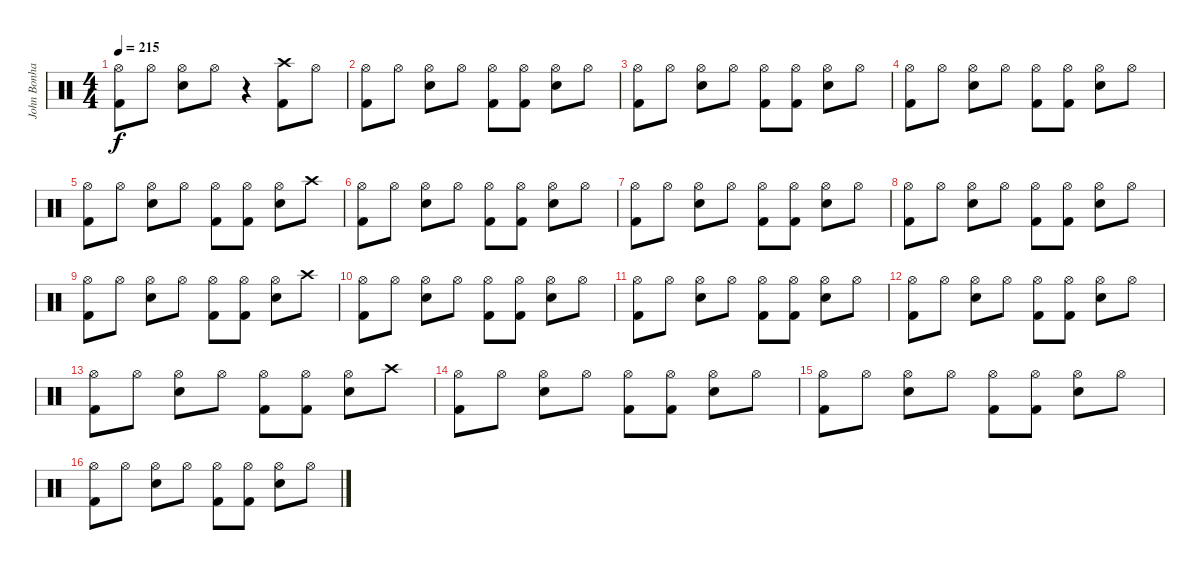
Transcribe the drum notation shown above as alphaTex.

\track ("John Bonham" "John Bonha") {instrument percussion}
\staff {score}
\articulation defaults
\ts (4 4)
\tempo 215
\clef neutral
\ks c
("Hi-Hat (open)" "Kick (hit) 2").8{dy f} "Hi-Hat (open)".8 ("Hi-Hat (open)" "Snare (hit) 2").8 "Hi-Hat (open)".8 r.4 ("Crash high (hit)" "Kick (hit) 2").8 "Hi-Hat (open)".8 |
("Hi-Hat (open)" "Kick (hit) 2").8 "Hi-Hat (open)".8 ("Hi-Hat (open)" "Snare (hit) 2").8 "Hi-Hat (open)".8 ("Hi-Hat (open)" "Kick (hit) 2").8 ("Hi-Hat (open)" "Kick (hit) 2").8 ("Hi-Hat (open)" "Snare (hit) 2").8 "Hi-Hat (open)".8 |
("Hi-Hat (open)" "Kick (hit) 2").8 "Hi-Hat (open)".8 ("Hi-Hat (open)" "Snare (hit) 2").8 "Hi-Hat (open)".8 ("Hi-Hat (open)" "Kick (hit) 2").8 ("Hi-Hat (open)" "Kick (hit) 2").8 ("Hi-Hat (open)" "Snare (hit) 2").8 "Hi-Hat (open)".8 |
("Hi-Hat (open)" "Kick (hit) 2").8 "Hi-Hat (open)".8 ("Hi-Hat (open)" "Snare (hit) 2").8 "Hi-Hat (open)".8 ("Hi-Hat (open)" "Kick (hit) 2").8 ("Hi-Hat (open)" "Kick (hit) 2").8 ("Hi-Hat (open)" "Snare (hit) 2").8 "Hi-Hat (open)".8 |
("Hi-Hat (open)" "Kick (hit) 2").8 "Hi-Hat (open)".8 ("Hi-Hat (open)" "Snare (hit) 2").8 "Hi-Hat (open)".8 ("Hi-Hat (open)" "Kick (hit) 2").8 ("Hi-Hat (open)" "Kick (hit) 2").8 ("Hi-Hat (open)" "Snare (hit) 2").8 "Crash high (hit)".8 |
("Hi-Hat (open)" "Kick (hit) 2").8 "Hi-Hat (open)".8 ("Hi-Hat (open)" "Snare (hit) 2").8 "Hi-Hat (open)".8 ("Hi-Hat (open)" "Kick (hit) 2").8 ("Hi-Hat (open)" "Kick (hit) 2").8 ("Hi-Hat (open)" "Snare (hit) 2").8 "Hi-Hat (open)".8 |
("Hi-Hat (open)" "Kick (hit) 2").8 "Hi-Hat (open)".8 ("Hi-Hat (open)" "Snare (hit) 2").8 "Hi-Hat (open)".8 ("Hi-Hat (open)" "Kick (hit) 2").8 ("Hi-Hat (open)" "Kick (hit) 2").8 ("Hi-Hat (open)" "Snare (hit) 2").8 "Hi-Hat (open)".8 |
("Hi-Hat (open)" "Kick (hit) 2").8 "Hi-Hat (open)".8 ("Hi-Hat (open)" "Snare (hit) 2").8 "Hi-Hat (open)".8 ("Hi-Hat (open)" "Kick (hit) 2").8 ("Hi-Hat (open)" "Kick (hit) 2").8 ("Hi-Hat (open)" "Snare (hit) 2").8 "Hi-Hat (open)".8 |
("Hi-Hat (open)" "Kick (hit) 2").8 "Hi-Hat (open)".8 ("Hi-Hat (open)" "Snare (hit) 2").8 "Hi-Hat (open)".8 ("Hi-Hat (open)" "Kick (hit) 2").8 ("Hi-Hat (open)" "Kick (hit) 2").8 ("Hi-Hat (open)" "Snare (hit) 2").8 "Crash high (hit)".8 |
("Hi-Hat (open)" "Kick (hit) 2").8 "Hi-Hat (open)".8 ("Hi-Hat (open)" "Snare (hit) 2").8 "Hi-Hat (open)".8 ("Hi-Hat (open)" "Kick (hit) 2").8 ("Hi-Hat (open)" "Kick (hit) 2").8 ("Hi-Hat (open)" "Snare (hit) 2").8 "Hi-Hat (open)".8 |
("Hi-Hat (open)" "Kick (hit) 2").8 "Hi-Hat (open)".8 ("Hi-Hat (open)" "Snare (hit) 2").8 "Hi-Hat (open)".8 ("Hi-Hat (open)" "Kick (hit) 2").8 ("Hi-Hat (open)" "Kick (hit) 2").8 ("Hi-Hat (open)" "Snare (hit) 2").8 "Hi-Hat (open)".8 |
("Hi-Hat (open)" "Kick (hit) 2").8 "Hi-Hat (open)".8 ("Hi-Hat (open)" "Snare (hit) 2").8 "Hi-Hat (open)".8 ("Hi-Hat (open)" "Kick (hit) 2").8 ("Hi-Hat (open)" "Kick (hit) 2").8 ("Hi-Hat (open)" "Snare (hit) 2").8 "Hi-Hat (open)".8 |
("Hi-Hat (open)" "Kick (hit) 2").8 "Hi-Hat (open)".8 ("Hi-Hat (open)" "Snare (hit) 2").8 "Hi-Hat (open)".8 ("Hi-Hat (open)" "Kick (hit) 2").8 ("Hi-Hat (open)" "Kick (hit) 2").8 ("Hi-Hat (open)" "Snare (hit) 2").8 "Crash high (hit)".8 |
("Hi-Hat (open)" "Kick (hit) 2").8 "Hi-Hat (open)".8 ("Hi-Hat (open)" "Snare (hit) 2").8 "Hi-Hat (open)".8 ("Hi-Hat (open)" "Kick (hit) 2").8 ("Hi-Hat (open)" "Kick (hit) 2").8 ("Hi-Hat (open)" "Snare (hit) 2").8 "Hi-Hat (open)".8 |
("Hi-Hat (open)" "Kick (hit) 2").8 "Hi-Hat (open)".8 ("Hi-Hat (open)" "Snare (hit) 2").8 "Hi-Hat (open)".8 ("Hi-Hat (open)" "Kick (hit) 2").8 ("Hi-Hat (open)" "Kick (hit) 2").8 ("Hi-Hat (open)" "Snare (hit) 2").8 "Hi-Hat (open)".8 |
("Hi-Hat (open)" "Kick (hit) 2").8 "Hi-Hat (open)".8 ("Hi-Hat (open)" "Snare (hit) 2").8 "Hi-Hat (open)".8 ("Hi-Hat (open)" "Kick (hit) 2").8 ("Hi-Hat (open)" "Kick (hit) 2").8 ("Hi-Hat (open)" "Snare (hit) 2").8 "Hi-Hat (open)".8
